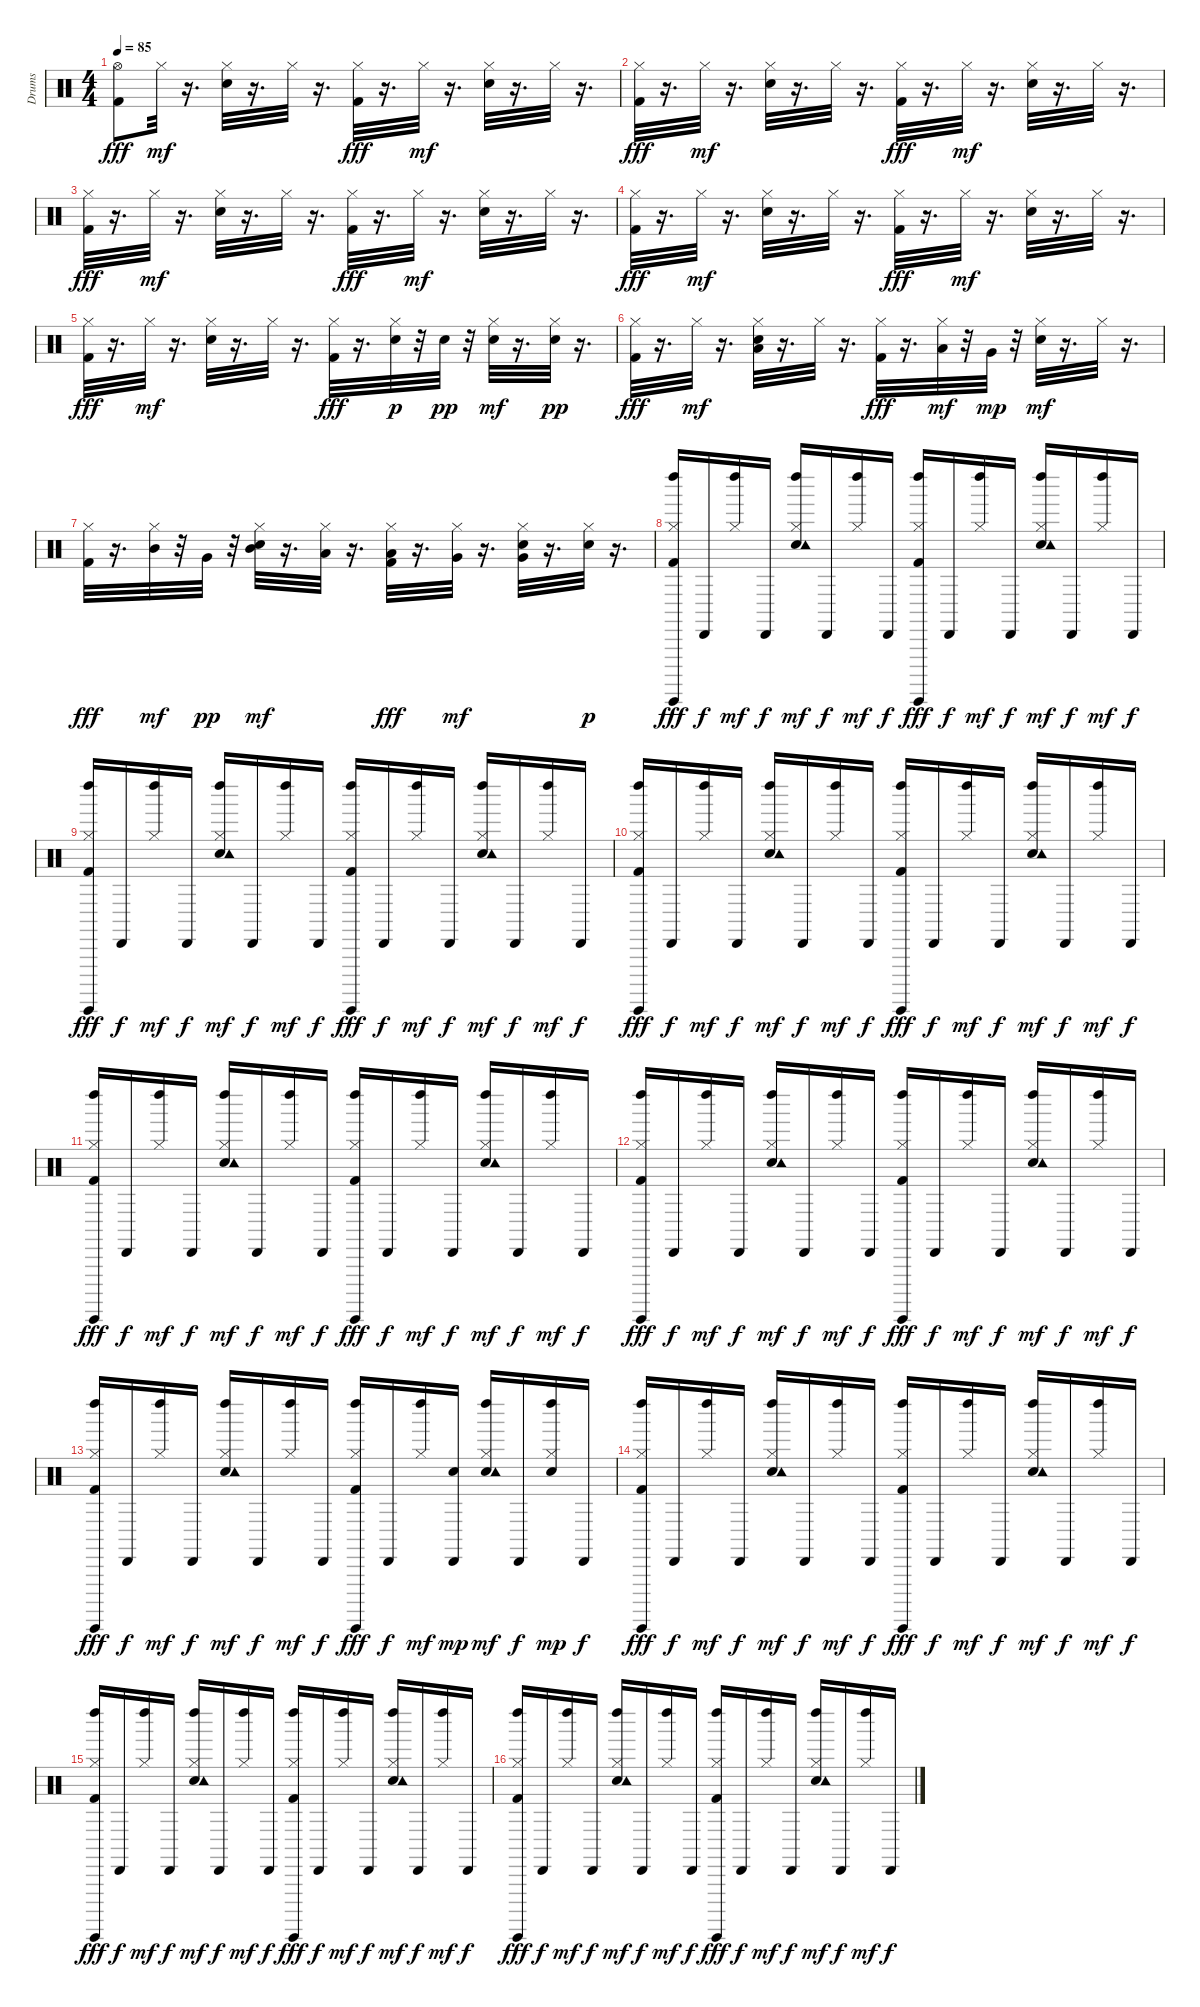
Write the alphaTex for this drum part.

\track ("Drums" "Drums") {instrument percussion}
\staff {score}
\articulation defaults
\ts (4 4)
\tempo 85
\clef neutral
\ks c
("Hi-Hat (open)" "Kick (hit) 2").8{dy fff} "Hi-Hat (closed)".32{dy mf} r.16{d} ("Hi-Hat (closed)" "Electric Snare (hit)").32 r.16{d} "Hi-Hat (closed)".32 r.16{d} ("Hi-Hat (closed)" "Kick (hit) 2").32{dy fff} r.16{d} "Hi-Hat (closed)".32{dy mf} r.16{d} ("Hi-Hat (closed)" "Electric Snare (hit)").32 r.16{d} "Hi-Hat (closed)".32 r.16{d} |
("Hi-Hat (closed)" "Kick (hit) 2").32{dy fff} r.16{d} "Hi-Hat (closed)".32{dy mf} r.16{d} ("Hi-Hat (closed)" "Electric Snare (hit)").32 r.16{d} "Hi-Hat (closed)".32 r.16{d} ("Hi-Hat (closed)" "Kick (hit) 2").32{dy fff} r.16{d} "Hi-Hat (closed)".32{dy mf} r.16{d} ("Hi-Hat (closed)" "Electric Snare (hit)").32 r.16{d} "Hi-Hat (closed)".32 r.16{d} |
("Hi-Hat (closed)" "Kick (hit) 2").32{dy fff} r.16{d} "Hi-Hat (closed)".32{dy mf} r.16{d} ("Hi-Hat (closed)" "Electric Snare (hit)").32 r.16{d} "Hi-Hat (closed)".32 r.16{d} ("Hi-Hat (closed)" "Kick (hit) 2").32{dy fff} r.16{d} "Hi-Hat (closed)".32{dy mf} r.16{d} ("Hi-Hat (closed)" "Electric Snare (hit)").32 r.16{d} "Hi-Hat (closed)".32 r.16{d} |
("Hi-Hat (closed)" "Kick (hit) 2").32{dy fff} r.16{d} "Hi-Hat (closed)".32{dy mf} r.16{d} ("Hi-Hat (closed)" "Electric Snare (hit)").32 r.16{d} "Hi-Hat (closed)".32 r.16{d} ("Hi-Hat (closed)" "Kick (hit) 2").32{dy fff} r.16{d} "Hi-Hat (closed)".32{dy mf} r.16{d} ("Hi-Hat (closed)" "Electric Snare (hit)").32 r.16{d} "Hi-Hat (closed)".32 r.16{d} |
("Hi-Hat (closed)" "Kick (hit) 2").32{dy fff} r.16{d} "Hi-Hat (closed)".32{dy mf} r.16{d} ("Hi-Hat (closed)" "Electric Snare (hit)").32 r.16{d} "Hi-Hat (closed)".32 r.16{d} ("Hi-Hat (closed)" "Kick (hit) 2").32{dy fff} r.16{d} ("Hi-Hat (closed)" "Electric Snare (hit)").32{dy p} r.32 "Electric Snare (hit)".32{dy pp} r.32 ("Hi-Hat (closed)" "Electric Snare (hit)").32{dy mf} r.16{d} ("Hi-Hat (closed)" "Snare (hit) 2").32{dy pp} r.16{d} |
("Hi-Hat (closed)" "Kick (hit) 2").32{dy fff} r.16{d} "Hi-Hat (closed)".32{dy mf} r.16{d} ("Low Tom (hit)" "Hi-Hat (closed)" "Electric Snare (hit)").32 r.16{d} "Hi-Hat (closed)".32 r.16{d} ("Hi-Hat (closed)" "Kick (hit) 2").32{dy fff} r.16{d} ("Low Tom (hit)" "Hi-Hat (closed)").32{dy mf} r.32 "Very Low Tom (hit)".32{dy mp} r.32 ("Hi-Hat (closed)" "Electric Snare (hit)").32{dy mf} r.16{d} "Hi-Hat (closed)".32 r.16{d} |
("Hi-Hat (closed)" "Kick (hit) 2").32{dy fff} r.16{d} ("Mid Tom (hit)" "Hi-Hat (closed)").32{dy mf} r.32 "Very Low Tom (hit)".32{dy pp} r.32 ("Mid Tom (hit)" "Hi-Hat (closed)" "Electric Snare (hit)").32{dy mf} r.16{d} ("Low Tom (hit)" "Hi-Hat (closed)").32 r.16{d} ("Low Tom (hit)" "Hi-Hat (closed)" "Kick (hit) 2").32{dy fff} r.16{d} ("Very Low Tom (hit)" "Hi-Hat (closed)").32{dy mf} r.16{d} ("Very Low Tom (hit)" "Hi-Hat (closed)" "Electric Snare (hit)").32 r.16{d} ("Hi-Hat (closed)" "Electric Snare (hit)").32{dy p} r.16{d} |
("Hi-Hat (closed)" "Kick (hit) 2" "Guiro (hit)" "Left Maraca (hit)").16{dy fff} "Cabasa (hit)".16{dy f} ("Hi-Hat (closed)" "Left Maraca (hit)").16{dy mf} "Cabasa (hit)".16{dy f} ("Hi-Hat (closed)" "Electric Snare (hit)" "Left Maraca (hit)" "Tambourine (hit)").16{dy mf} "Cabasa (hit)".16{dy f} ("Hi-Hat (closed)" "Left Maraca (hit)").16{dy mf} "Cabasa (hit)".16{dy f} ("Hi-Hat (closed)" "Kick (hit) 2" "Guiro (hit)" "Left Maraca (hit)").16{dy fff} "Cabasa (hit)".16{dy f} ("Hi-Hat (closed)" "Left Maraca (hit)").16{dy mf} "Cabasa (hit)".16{dy f} ("Hi-Hat (closed)" "Electric Snare (hit)" "Left Maraca (hit)" "Tambourine (hit)").16{dy mf} "Cabasa (hit)".16{dy f} ("Hi-Hat (closed)" "Left Maraca (hit)").16{dy mf} "Cabasa (hit)".16{dy f} |
("Hi-Hat (closed)" "Kick (hit) 2" "Guiro (hit)" "Left Maraca (hit)").16{dy fff} "Cabasa (hit)".16{dy f} ("Hi-Hat (closed)" "Left Maraca (hit)").16{dy mf} "Cabasa (hit)".16{dy f} ("Hi-Hat (closed)" "Electric Snare (hit)" "Left Maraca (hit)" "Tambourine (hit)").16{dy mf} "Cabasa (hit)".16{dy f} ("Hi-Hat (closed)" "Left Maraca (hit)").16{dy mf} "Cabasa (hit)".16{dy f} ("Hi-Hat (closed)" "Kick (hit) 2" "Guiro (hit)" "Left Maraca (hit)").16{dy fff} "Cabasa (hit)".16{dy f} ("Hi-Hat (closed)" "Left Maraca (hit)").16{dy mf} "Cabasa (hit)".16{dy f} ("Hi-Hat (closed)" "Electric Snare (hit)" "Left Maraca (hit)" "Tambourine (hit)").16{dy mf} "Cabasa (hit)".16{dy f} ("Hi-Hat (closed)" "Left Maraca (hit)").16{dy mf} "Cabasa (hit)".16{dy f} |
("Hi-Hat (closed)" "Kick (hit) 2" "Guiro (hit)" "Left Maraca (hit)").16{dy fff} "Cabasa (hit)".16{dy f} ("Hi-Hat (closed)" "Left Maraca (hit)").16{dy mf} "Cabasa (hit)".16{dy f} ("Hi-Hat (closed)" "Electric Snare (hit)" "Left Maraca (hit)" "Tambourine (hit)").16{dy mf} "Cabasa (hit)".16{dy f} ("Hi-Hat (closed)" "Left Maraca (hit)").16{dy mf} "Cabasa (hit)".16{dy f} ("Hi-Hat (closed)" "Kick (hit) 2" "Guiro (hit)" "Left Maraca (hit)").16{dy fff} "Cabasa (hit)".16{dy f} ("Hi-Hat (closed)" "Left Maraca (hit)").16{dy mf} "Cabasa (hit)".16{dy f} ("Hi-Hat (closed)" "Electric Snare (hit)" "Left Maraca (hit)" "Tambourine (hit)").16{dy mf} "Cabasa (hit)".16{dy f} ("Hi-Hat (closed)" "Left Maraca (hit)").16{dy mf} "Cabasa (hit)".16{dy f} |
("Hi-Hat (closed)" "Kick (hit) 2" "Guiro (hit)" "Left Maraca (hit)").16{dy fff} "Cabasa (hit)".16{dy f} ("Hi-Hat (closed)" "Left Maraca (hit)").16{dy mf} "Cabasa (hit)".16{dy f} ("Hi-Hat (closed)" "Electric Snare (hit)" "Left Maraca (hit)" "Tambourine (hit)").16{dy mf} "Cabasa (hit)".16{dy f} ("Hi-Hat (closed)" "Left Maraca (hit)").16{dy mf} "Cabasa (hit)".16{dy f} ("Hi-Hat (closed)" "Kick (hit) 2" "Guiro (hit)" "Left Maraca (hit)").16{dy fff} "Cabasa (hit)".16{dy f} ("Hi-Hat (closed)" "Left Maraca (hit)").16{dy mf} "Cabasa (hit)".16{dy f} ("Hi-Hat (closed)" "Electric Snare (hit)" "Left Maraca (hit)" "Tambourine (hit)").16{dy mf} "Cabasa (hit)".16{dy f} ("Hi-Hat (closed)" "Left Maraca (hit)").16{dy mf} "Cabasa (hit)".16{dy f} |
("Hi-Hat (closed)" "Kick (hit) 2" "Guiro (hit)" "Left Maraca (hit)").16{dy fff} "Cabasa (hit)".16{dy f} ("Hi-Hat (closed)" "Left Maraca (hit)").16{dy mf} "Cabasa (hit)".16{dy f} ("Hi-Hat (closed)" "Electric Snare (hit)" "Left Maraca (hit)" "Tambourine (hit)").16{dy mf} "Cabasa (hit)".16{dy f} ("Hi-Hat (closed)" "Left Maraca (hit)").16{dy mf} "Cabasa (hit)".16{dy f} ("Hi-Hat (closed)" "Kick (hit) 2" "Guiro (hit)" "Left Maraca (hit)").16{dy fff} "Cabasa (hit)".16{dy f} ("Hi-Hat (closed)" "Left Maraca (hit)").16{dy mf} "Cabasa (hit)".16{dy f} ("Hi-Hat (closed)" "Electric Snare (hit)" "Left Maraca (hit)" "Tambourine (hit)").16{dy mf} "Cabasa (hit)".16{dy f} ("Hi-Hat (closed)" "Left Maraca (hit)").16{dy mf} "Cabasa (hit)".16{dy f} |
("Hi-Hat (closed)" "Kick (hit) 2" "Guiro (hit)" "Left Maraca (hit)").16{dy fff} "Cabasa (hit)".16{dy f} ("Hi-Hat (closed)" "Left Maraca (hit)").16{dy mf} "Cabasa (hit)".16{dy f} ("Hi-Hat (closed)" "Electric Snare (hit)" "Left Maraca (hit)" "Tambourine (hit)").16{dy mf} "Cabasa (hit)".16{dy f} ("Hi-Hat (closed)" "Left Maraca (hit)").16{dy mf} "Cabasa (hit)".16{dy f} ("Hi-Hat (closed)" "Kick (hit) 2" "Guiro (hit)" "Left Maraca (hit)").16{dy fff} "Cabasa (hit)".16{dy f} ("Hi-Hat (closed)" "Left Maraca (hit)").16{dy mf} ("Snare (hit) 2" "Cabasa (hit)").16{dy mp} ("Hi-Hat (closed)" "Electric Snare (hit)" "Left Maraca (hit)" "Tambourine (hit)").16{dy mf} "Cabasa (hit)".16{dy f} ("Hi-Hat (closed)" "Electric Snare (hit)" "Left Maraca (hit)").16{dy mp} "Cabasa (hit)".16{dy f} |
("Hi-Hat (closed)" "Kick (hit) 2" "Guiro (hit)" "Left Maraca (hit)").16{dy fff} "Cabasa (hit)".16{dy f} ("Hi-Hat (closed)" "Left Maraca (hit)").16{dy mf} "Cabasa (hit)".16{dy f} ("Hi-Hat (closed)" "Electric Snare (hit)" "Left Maraca (hit)" "Tambourine (hit)").16{dy mf} "Cabasa (hit)".16{dy f} ("Hi-Hat (closed)" "Left Maraca (hit)").16{dy mf} "Cabasa (hit)".16{dy f} ("Hi-Hat (closed)" "Kick (hit) 2" "Guiro (hit)" "Left Maraca (hit)").16{dy fff} "Cabasa (hit)".16{dy f} ("Hi-Hat (closed)" "Left Maraca (hit)").16{dy mf} "Cabasa (hit)".16{dy f} ("Hi-Hat (closed)" "Electric Snare (hit)" "Left Maraca (hit)" "Tambourine (hit)").16{dy mf} "Cabasa (hit)".16{dy f} ("Hi-Hat (closed)" "Left Maraca (hit)").16{dy mf} "Cabasa (hit)".16{dy f} |
("Hi-Hat (closed)" "Kick (hit) 2" "Guiro (hit)" "Left Maraca (hit)").16{dy fff} "Cabasa (hit)".16{dy f} ("Hi-Hat (closed)" "Left Maraca (hit)").16{dy mf} "Cabasa (hit)".16{dy f} ("Hi-Hat (closed)" "Electric Snare (hit)" "Left Maraca (hit)" "Tambourine (hit)").16{dy mf} "Cabasa (hit)".16{dy f} ("Hi-Hat (closed)" "Left Maraca (hit)").16{dy mf} "Cabasa (hit)".16{dy f} ("Hi-Hat (closed)" "Kick (hit) 2" "Guiro (hit)" "Left Maraca (hit)").16{dy fff} "Cabasa (hit)".16{dy f} ("Hi-Hat (closed)" "Left Maraca (hit)").16{dy mf} "Cabasa (hit)".16{dy f} ("Hi-Hat (closed)" "Electric Snare (hit)" "Left Maraca (hit)" "Tambourine (hit)").16{dy mf} "Cabasa (hit)".16{dy f} ("Hi-Hat (closed)" "Left Maraca (hit)").16{dy mf} "Cabasa (hit)".16{dy f} |
("Hi-Hat (closed)" "Kick (hit) 2" "Guiro (hit)" "Left Maraca (hit)").16{dy fff} "Cabasa (hit)".16{dy f} ("Hi-Hat (closed)" "Left Maraca (hit)").16{dy mf} "Cabasa (hit)".16{dy f} ("Hi-Hat (closed)" "Electric Snare (hit)" "Left Maraca (hit)" "Tambourine (hit)").16{dy mf} "Cabasa (hit)".16{dy f} ("Hi-Hat (closed)" "Left Maraca (hit)").16{dy mf} "Cabasa (hit)".16{dy f} ("Hi-Hat (closed)" "Kick (hit) 2" "Guiro (hit)" "Left Maraca (hit)").16{dy fff} "Cabasa (hit)".16{dy f} ("Hi-Hat (closed)" "Left Maraca (hit)").16{dy mf} "Cabasa (hit)".16{dy f} ("Hi-Hat (closed)" "Electric Snare (hit)" "Left Maraca (hit)" "Tambourine (hit)").16{dy mf} "Cabasa (hit)".16{dy f} ("Hi-Hat (closed)" "Left Maraca (hit)").16{dy mf} "Cabasa (hit)".16{dy f}
